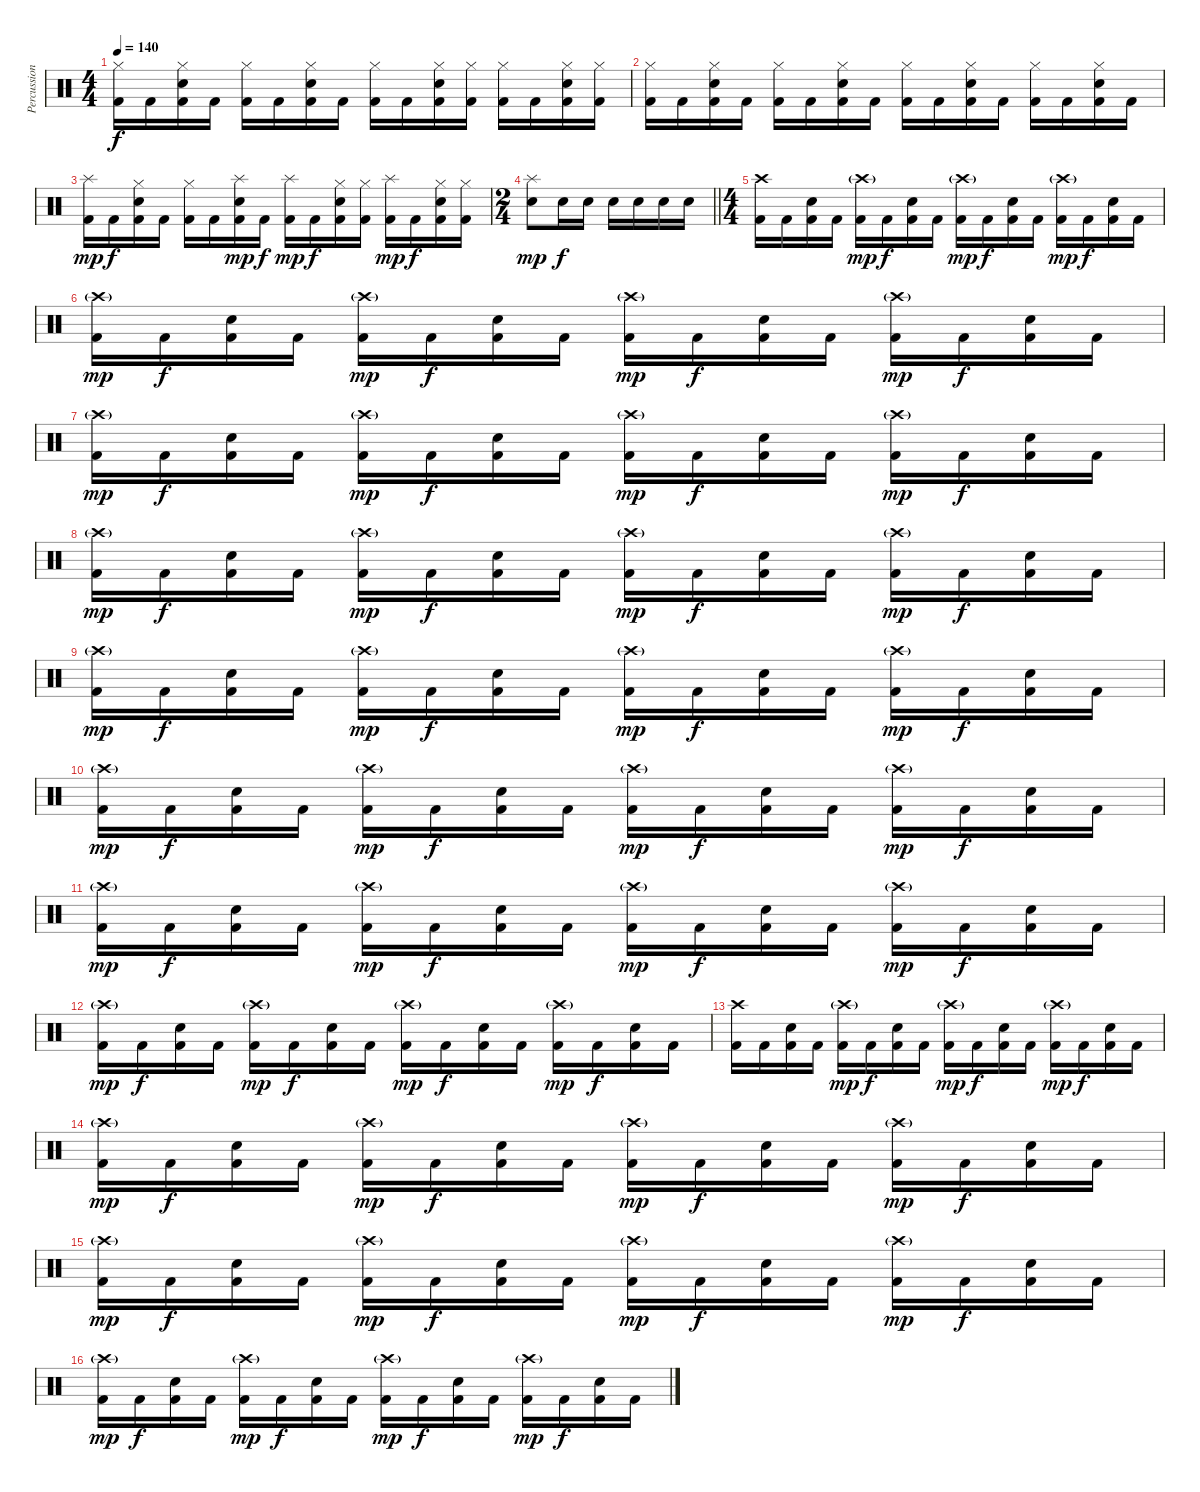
\track ("Percussion" "Percussion") {instrument percussion}
\staff {score}
\articulation defaults
\ts (4 4)
\tempo 140
\clef neutral
\ks c
("Hi-Hat (closed)" "Kick (hit) 2").16{dy f} "Kick (hit) 2".16 ("Hi-Hat (closed)" "Electric Snare (hit)" "Kick (hit) 2").16 "Kick (hit) 2".16 ("Hi-Hat (closed)" "Kick (hit) 2").16 "Kick (hit) 2".16 ("Hi-Hat (closed)" "Electric Snare (hit)" "Kick (hit) 2").16 "Kick (hit) 2".16 ("Hi-Hat (closed)" "Kick (hit) 2").16 "Kick (hit) 2".16 ("Hi-Hat (closed)" "Electric Snare (hit)" "Kick (hit) 2").16 ("Hi-Hat (closed)" "Kick (hit) 2").16 ("Hi-Hat (closed)" "Kick (hit) 2").16 "Kick (hit) 2".16 ("Hi-Hat (closed)" "Electric Snare (hit)" "Kick (hit) 2").16 ("Hi-Hat (closed)" "Kick (hit) 2").16 |
("Hi-Hat (closed)" "Kick (hit) 2").16 "Kick (hit) 2".16 ("Hi-Hat (closed)" "Electric Snare (hit)" "Kick (hit) 2").16 "Kick (hit) 2".16 ("Hi-Hat (closed)" "Kick (hit) 2").16 "Kick (hit) 2".16 ("Hi-Hat (closed)" "Electric Snare (hit)" "Kick (hit) 2").16 "Kick (hit) 2".16 ("Hi-Hat (closed)" "Kick (hit) 2").16 "Kick (hit) 2".16 ("Hi-Hat (closed)" "Electric Snare (hit)" "Kick (hit) 2").16 "Kick (hit) 2".16 ("Hi-Hat (closed)" "Kick (hit) 2").16 "Kick (hit) 2".16 ("Hi-Hat (closed)" "Electric Snare (hit)" "Kick (hit) 2").16 "Kick (hit) 2".16 |
("Splash (hit)" "Kick (hit) 2").16{dy mp} "Kick (hit) 2".16{dy f} ("Hi-Hat (closed)" "Electric Snare (hit)" "Kick (hit) 2").16 "Kick (hit) 2".16 ("Hi-Hat (closed)" "Kick (hit) 2").16 "Kick (hit) 2".16 ("Splash (hit)" "Electric Snare (hit)" "Kick (hit) 2").16{dy mp} "Kick (hit) 2".16{dy f} ("Splash (hit)" "Kick (hit) 2").16{dy mp} "Kick (hit) 2".16{dy f} ("Hi-Hat (closed)" "Electric Snare (hit)" "Kick (hit) 2").16 ("Hi-Hat (closed)" "Kick (hit) 2").16 ("Splash (hit)" "Kick (hit) 2").16{dy mp} "Kick (hit) 2".16{dy f} ("Hi-Hat (closed)" "Electric Snare (hit)" "Kick (hit) 2").16 ("Hi-Hat (closed)" "Kick (hit) 2").16 |
\ts (2 4)
\barLineRight lightlight
("Splash (hit)" "Electric Snare (hit)").8{dy mp} "Electric Snare (hit)".16{dy f} "Electric Snare (hit)".16 "Electric Snare (hit)".16 "Electric Snare (hit)".16 "Electric Snare (hit)".16 "Electric Snare (hit)".16 |
\ts (4 4)
("Crash high (hit)" "Kick (hit) 2").16 "Kick (hit) 2".16 ("Electric Snare (hit)" "Kick (hit) 2").16 "Kick (hit) 2".16 ("Crash high (hit)"{g} "Kick (hit) 2").16{dy mp} "Kick (hit) 2".16{dy f} ("Electric Snare (hit)" "Kick (hit) 2").16 "Kick (hit) 2".16 ("Crash high (hit)"{g} "Kick (hit) 2").16{dy mp} "Kick (hit) 2".16{dy f} ("Electric Snare (hit)" "Kick (hit) 2").16 "Kick (hit) 2".16 ("Crash high (hit)"{g} "Kick (hit) 2").16{dy mp} "Kick (hit) 2".16{dy f} ("Electric Snare (hit)" "Kick (hit) 2").16 "Kick (hit) 2".16 |
("Crash high (hit)"{g} "Kick (hit) 2").16{dy mp} "Kick (hit) 2".16{dy f} ("Electric Snare (hit)" "Kick (hit) 2").16 "Kick (hit) 2".16 ("Crash high (hit)"{g} "Kick (hit) 2").16{dy mp} "Kick (hit) 2".16{dy f} ("Electric Snare (hit)" "Kick (hit) 2").16 "Kick (hit) 2".16 ("Crash high (hit)"{g} "Kick (hit) 2").16{dy mp} "Kick (hit) 2".16{dy f} ("Electric Snare (hit)" "Kick (hit) 2").16 "Kick (hit) 2".16 ("Crash high (hit)"{g} "Kick (hit) 2").16{dy mp} "Kick (hit) 2".16{dy f} ("Electric Snare (hit)" "Kick (hit) 2").16 "Kick (hit) 2".16 |
("Crash high (hit)"{g} "Kick (hit) 2").16{dy mp} "Kick (hit) 2".16{dy f} ("Electric Snare (hit)" "Kick (hit) 2").16 "Kick (hit) 2".16 ("Crash high (hit)"{g} "Kick (hit) 2").16{dy mp} "Kick (hit) 2".16{dy f} ("Electric Snare (hit)" "Kick (hit) 2").16 "Kick (hit) 2".16 ("Crash high (hit)"{g} "Kick (hit) 2").16{dy mp} "Kick (hit) 2".16{dy f} ("Electric Snare (hit)" "Kick (hit) 2").16 "Kick (hit) 2".16 ("Crash high (hit)"{g} "Kick (hit) 2").16{dy mp} "Kick (hit) 2".16{dy f} ("Electric Snare (hit)" "Kick (hit) 2").16 "Kick (hit) 2".16 |
("Crash high (hit)"{g} "Kick (hit) 2").16{dy mp} "Kick (hit) 2".16{dy f} ("Electric Snare (hit)" "Kick (hit) 2").16 "Kick (hit) 2".16 ("Crash high (hit)"{g} "Kick (hit) 2").16{dy mp} "Kick (hit) 2".16{dy f} ("Electric Snare (hit)" "Kick (hit) 2").16 "Kick (hit) 2".16 ("Crash high (hit)"{g} "Kick (hit) 2").16{dy mp} "Kick (hit) 2".16{dy f} ("Electric Snare (hit)" "Kick (hit) 2").16 "Kick (hit) 2".16 ("Crash high (hit)"{g} "Kick (hit) 2").16{dy mp} "Kick (hit) 2".16{dy f} ("Electric Snare (hit)" "Kick (hit) 2").16 "Kick (hit) 2".16 |
("Crash high (hit)"{g} "Kick (hit) 2").16{dy mp} "Kick (hit) 2".16{dy f} ("Electric Snare (hit)" "Kick (hit) 2").16 "Kick (hit) 2".16 ("Crash high (hit)"{g} "Kick (hit) 2").16{dy mp} "Kick (hit) 2".16{dy f} ("Electric Snare (hit)" "Kick (hit) 2").16 "Kick (hit) 2".16 ("Crash high (hit)"{g} "Kick (hit) 2").16{dy mp} "Kick (hit) 2".16{dy f} ("Electric Snare (hit)" "Kick (hit) 2").16 "Kick (hit) 2".16 ("Crash high (hit)"{g} "Kick (hit) 2").16{dy mp} "Kick (hit) 2".16{dy f} ("Electric Snare (hit)" "Kick (hit) 2").16 "Kick (hit) 2".16 |
("Crash high (hit)"{g} "Kick (hit) 2").16{dy mp} "Kick (hit) 2".16{dy f} ("Electric Snare (hit)" "Kick (hit) 2").16 "Kick (hit) 2".16 ("Crash high (hit)"{g} "Kick (hit) 2").16{dy mp} "Kick (hit) 2".16{dy f} ("Electric Snare (hit)" "Kick (hit) 2").16 "Kick (hit) 2".16 ("Crash high (hit)"{g} "Kick (hit) 2").16{dy mp} "Kick (hit) 2".16{dy f} ("Electric Snare (hit)" "Kick (hit) 2").16 "Kick (hit) 2".16 ("Crash high (hit)"{g} "Kick (hit) 2").16{dy mp} "Kick (hit) 2".16{dy f} ("Electric Snare (hit)" "Kick (hit) 2").16 "Kick (hit) 2".16 |
("Crash high (hit)"{g} "Kick (hit) 2").16{dy mp} "Kick (hit) 2".16{dy f} ("Electric Snare (hit)" "Kick (hit) 2").16 "Kick (hit) 2".16 ("Crash high (hit)"{g} "Kick (hit) 2").16{dy mp} "Kick (hit) 2".16{dy f} ("Electric Snare (hit)" "Kick (hit) 2").16 "Kick (hit) 2".16 ("Crash high (hit)"{g} "Kick (hit) 2").16{dy mp} "Kick (hit) 2".16{dy f} ("Electric Snare (hit)" "Kick (hit) 2").16 "Kick (hit) 2".16 ("Crash high (hit)"{g} "Kick (hit) 2").16{dy mp} "Kick (hit) 2".16{dy f} ("Electric Snare (hit)" "Kick (hit) 2").16 "Kick (hit) 2".16 |
("Crash high (hit)"{g} "Kick (hit) 2").16{dy mp} "Kick (hit) 2".16{dy f} ("Electric Snare (hit)" "Kick (hit) 2").16 "Kick (hit) 2".16 ("Crash high (hit)"{g} "Kick (hit) 2").16{dy mp} "Kick (hit) 2".16{dy f} ("Electric Snare (hit)" "Kick (hit) 2").16 "Kick (hit) 2".16 ("Crash high (hit)"{g} "Kick (hit) 2").16{dy mp} "Kick (hit) 2".16{dy f} ("Electric Snare (hit)" "Kick (hit) 2").16 "Kick (hit) 2".16 ("Crash high (hit)"{g} "Kick (hit) 2").16{dy mp} "Kick (hit) 2".16{dy f} ("Electric Snare (hit)" "Kick (hit) 2").16 "Kick (hit) 2".16 |
("Crash high (hit)" "Kick (hit) 2").16 "Kick (hit) 2".16 ("Electric Snare (hit)" "Kick (hit) 2").16 "Kick (hit) 2".16 ("Crash high (hit)"{g} "Kick (hit) 2").16{dy mp} "Kick (hit) 2".16{dy f} ("Electric Snare (hit)" "Kick (hit) 2").16 "Kick (hit) 2".16 ("Crash high (hit)"{g} "Kick (hit) 2").16{dy mp} "Kick (hit) 2".16{dy f} ("Electric Snare (hit)" "Kick (hit) 2").16 "Kick (hit) 2".16 ("Crash high (hit)"{g} "Kick (hit) 2").16{dy mp} "Kick (hit) 2".16{dy f} ("Electric Snare (hit)" "Kick (hit) 2").16 "Kick (hit) 2".16 |
("Crash high (hit)"{g} "Kick (hit) 2").16{dy mp} "Kick (hit) 2".16{dy f} ("Electric Snare (hit)" "Kick (hit) 2").16 "Kick (hit) 2".16 ("Crash high (hit)"{g} "Kick (hit) 2").16{dy mp} "Kick (hit) 2".16{dy f} ("Electric Snare (hit)" "Kick (hit) 2").16 "Kick (hit) 2".16 ("Crash high (hit)"{g} "Kick (hit) 2").16{dy mp} "Kick (hit) 2".16{dy f} ("Electric Snare (hit)" "Kick (hit) 2").16 "Kick (hit) 2".16 ("Crash high (hit)"{g} "Kick (hit) 2").16{dy mp} "Kick (hit) 2".16{dy f} ("Electric Snare (hit)" "Kick (hit) 2").16 "Kick (hit) 2".16 |
("Crash high (hit)"{g} "Kick (hit) 2").16{dy mp} "Kick (hit) 2".16{dy f} ("Electric Snare (hit)" "Kick (hit) 2").16 "Kick (hit) 2".16 ("Crash high (hit)"{g} "Kick (hit) 2").16{dy mp} "Kick (hit) 2".16{dy f} ("Electric Snare (hit)" "Kick (hit) 2").16 "Kick (hit) 2".16 ("Crash high (hit)"{g} "Kick (hit) 2").16{dy mp} "Kick (hit) 2".16{dy f} ("Electric Snare (hit)" "Kick (hit) 2").16 "Kick (hit) 2".16 ("Crash high (hit)"{g} "Kick (hit) 2").16{dy mp} "Kick (hit) 2".16{dy f} ("Electric Snare (hit)" "Kick (hit) 2").16 "Kick (hit) 2".16 |
("Crash high (hit)"{g} "Kick (hit) 2").16{dy mp} "Kick (hit) 2".16{dy f} ("Electric Snare (hit)" "Kick (hit) 2").16 "Kick (hit) 2".16 ("Crash high (hit)"{g} "Kick (hit) 2").16{dy mp} "Kick (hit) 2".16{dy f} ("Electric Snare (hit)" "Kick (hit) 2").16 "Kick (hit) 2".16 ("Crash high (hit)"{g} "Kick (hit) 2").16{dy mp} "Kick (hit) 2".16{dy f} ("Electric Snare (hit)" "Kick (hit) 2").16 "Kick (hit) 2".16 ("Crash high (hit)"{g} "Kick (hit) 2").16{dy mp} "Kick (hit) 2".16{dy f} ("Electric Snare (hit)" "Kick (hit) 2").16 "Kick (hit) 2".16
